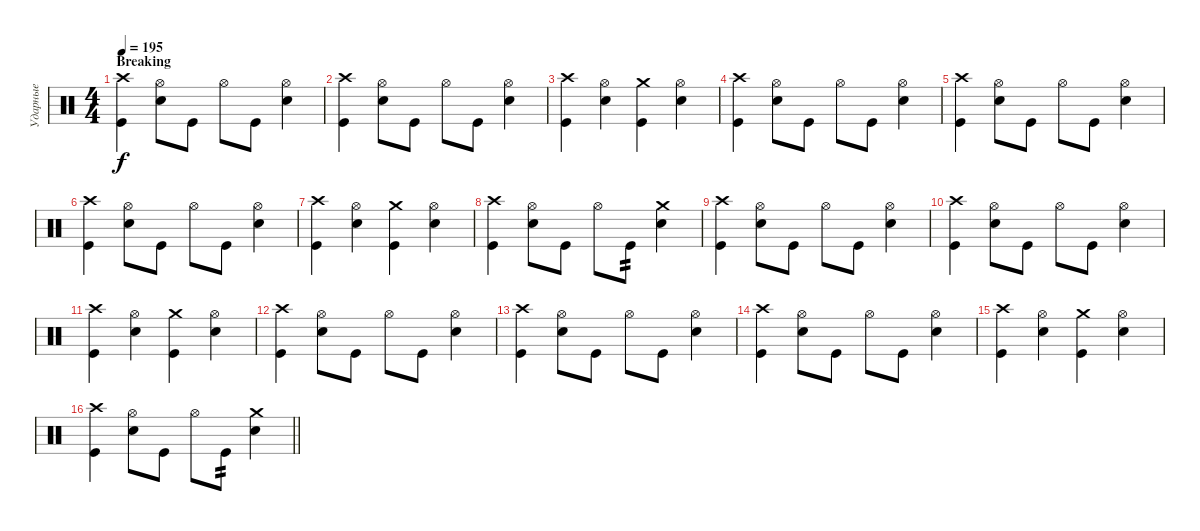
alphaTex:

\track ("Ударные" "Ударные") {instrument percussion}
\staff {score}
\articulation defaults
\ts (4 4)
\section ("" "Breaking")
\tempo 195
\clef neutral
\ks c
("Kick (hit)" "Crash high (hit)").4{dy f} ("Snare (hit) 2" "Hi-Hat (open)").8 "Kick (hit)".8 "Hi-Hat (open)".8 "Kick (hit)".8 ("Snare (hit) 2" "Hi-Hat (open)").4 |
("Kick (hit)" "Crash high (hit)").4 ("Snare (hit) 2" "Hi-Hat (open)").8 "Kick (hit)".8 "Hi-Hat (open)".8 "Kick (hit)".8 ("Snare (hit) 2" "Hi-Hat (open)").4 |
("Kick (hit)" "Crash high (hit)").4 ("Snare (hit) 2" "Hi-Hat (open)").4 ("Kick (hit)" "Crash medium (hit)").4 ("Snare (hit) 2" "Hi-Hat (open)").4 |
("Kick (hit)" "Crash high (hit)").4 ("Snare (hit) 2" "Hi-Hat (open)").8 "Kick (hit)".8 "Hi-Hat (open)".8 "Kick (hit)".8 ("Snare (hit) 2" "Hi-Hat (open)").4 |
("Kick (hit)" "Crash high (hit)").4 ("Snare (hit) 2" "Hi-Hat (open)").8 "Kick (hit)".8 "Hi-Hat (open)".8 "Kick (hit)".8 ("Snare (hit) 2" "Hi-Hat (open)").4 |
("Kick (hit)" "Crash high (hit)").4 ("Snare (hit) 2" "Hi-Hat (open)").8 "Kick (hit)".8 "Hi-Hat (open)".8 "Kick (hit)".8 ("Snare (hit) 2" "Hi-Hat (open)").4 |
("Kick (hit)" "Crash high (hit)").4 ("Snare (hit) 2" "Hi-Hat (open)").4 ("Kick (hit)" "Crash medium (hit)").4 ("Snare (hit) 2" "Hi-Hat (open)").4 |
("Kick (hit)" "Crash high (hit)").4 ("Snare (hit) 2" "Hi-Hat (open)").8 "Kick (hit)".8 "Hi-Hat (open)".8 "Kick (hit)".8{tp 2} ("Snare (hit) 2" "Crash medium (hit)").4 |
("Kick (hit)" "Crash high (hit)").4 ("Snare (hit) 2" "Hi-Hat (open)").8 "Kick (hit)".8 "Hi-Hat (open)".8 "Kick (hit)".8 ("Snare (hit) 2" "Hi-Hat (open)").4 |
("Kick (hit)" "Crash high (hit)").4 ("Snare (hit) 2" "Hi-Hat (open)").8 "Kick (hit)".8 "Hi-Hat (open)".8 "Kick (hit)".8 ("Snare (hit) 2" "Hi-Hat (open)").4 |
("Kick (hit)" "Crash high (hit)").4 ("Snare (hit) 2" "Hi-Hat (open)").4 ("Kick (hit)" "Crash medium (hit)").4 ("Snare (hit) 2" "Hi-Hat (open)").4 |
("Kick (hit)" "Crash high (hit)").4 ("Snare (hit) 2" "Hi-Hat (open)").8 "Kick (hit)".8 "Hi-Hat (open)".8 "Kick (hit)".8 ("Snare (hit) 2" "Hi-Hat (open)").4 |
("Kick (hit)" "Crash high (hit)").4 ("Snare (hit) 2" "Hi-Hat (open)").8 "Kick (hit)".8 "Hi-Hat (open)".8 "Kick (hit)".8 ("Snare (hit) 2" "Hi-Hat (open)").4 |
("Kick (hit)" "Crash high (hit)").4 ("Snare (hit) 2" "Hi-Hat (open)").8 "Kick (hit)".8 "Hi-Hat (open)".8 "Kick (hit)".8 ("Snare (hit) 2" "Hi-Hat (open)").4 |
("Kick (hit)" "Crash high (hit)").4 ("Snare (hit) 2" "Hi-Hat (open)").4 ("Kick (hit)" "Crash medium (hit)").4 ("Snare (hit) 2" "Hi-Hat (open)").4 |
\barLineRight lightlight
("Kick (hit)" "Crash high (hit)").4 ("Snare (hit) 2" "Hi-Hat (open)").8 "Kick (hit)".8 "Hi-Hat (open)".8 "Kick (hit)".8{tp 2} ("Snare (hit) 2" "Crash medium (hit)").4
